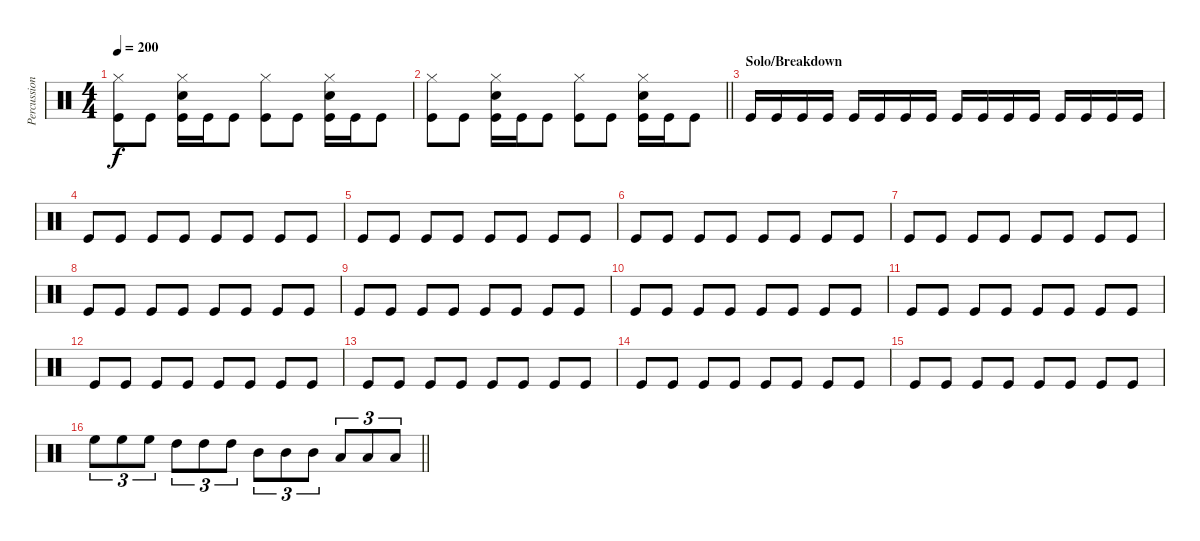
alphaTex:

\track ("Percussion" "Percussion") {instrument percussion}
\staff {score}
\articulation defaults
\ts (4 4)
\tempo 200
\clef neutral
\ks c
("Hi-Hat (closed)" "Kick (hit)").8{dy f} "Kick (hit)".8 ("Snare (hit) 2" "Hi-Hat (closed)" "Kick (hit)").16 "Kick (hit)".16 "Kick (hit)".8 ("Hi-Hat (closed)" "Kick (hit)").8 "Kick (hit)".8 ("Snare (hit) 2" "Hi-Hat (closed)" "Kick (hit)").16 "Kick (hit)".16 "Kick (hit)".8 |
\barLineRight lightlight
("Hi-Hat (closed)" "Kick (hit)").8 "Kick (hit)".8 ("Snare (hit) 2" "Hi-Hat (closed)" "Kick (hit)").16 "Kick (hit)".16 "Kick (hit)".8 ("Hi-Hat (closed)" "Kick (hit)").8 "Kick (hit)".8 ("Snare (hit) 2" "Hi-Hat (closed)" "Kick (hit)").16 "Kick (hit)".16 "Kick (hit)".8 |
\section ("" "Solo/Breakdown")
"Kick (hit)".16 "Kick (hit)".16 "Kick (hit)".16 "Kick (hit)".16 "Kick (hit)".16 "Kick (hit)".16 "Kick (hit)".16 "Kick (hit)".16 "Kick (hit)".16 "Kick (hit)".16 "Kick (hit)".16 "Kick (hit)".16 "Kick (hit)".16 "Kick (hit)".16 "Kick (hit)".16 "Kick (hit)".16 |
"Kick (hit)".8 "Kick (hit)".8 "Kick (hit)".8 "Kick (hit)".8 "Kick (hit)".8 "Kick (hit)".8 "Kick (hit)".8 "Kick (hit)".8 |
"Kick (hit)".8 "Kick (hit)".8 "Kick (hit)".8 "Kick (hit)".8 "Kick (hit)".8 "Kick (hit)".8 "Kick (hit)".8 "Kick (hit)".8 |
"Kick (hit)".8 "Kick (hit)".8 "Kick (hit)".8 "Kick (hit)".8 "Kick (hit)".8 "Kick (hit)".8 "Kick (hit)".8 "Kick (hit)".8 |
"Kick (hit)".8 "Kick (hit)".8 "Kick (hit)".8 "Kick (hit)".8 "Kick (hit)".8 "Kick (hit)".8 "Kick (hit)".8 "Kick (hit)".8 |
"Kick (hit)".8 "Kick (hit)".8 "Kick (hit)".8 "Kick (hit)".8 "Kick (hit)".8 "Kick (hit)".8 "Kick (hit)".8 "Kick (hit)".8 |
"Kick (hit)".8 "Kick (hit)".8 "Kick (hit)".8 "Kick (hit)".8 "Kick (hit)".8 "Kick (hit)".8 "Kick (hit)".8 "Kick (hit)".8 |
"Kick (hit)".8 "Kick (hit)".8 "Kick (hit)".8 "Kick (hit)".8 "Kick (hit)".8 "Kick (hit)".8 "Kick (hit)".8 "Kick (hit)".8 |
"Kick (hit)".8 "Kick (hit)".8 "Kick (hit)".8 "Kick (hit)".8 "Kick (hit)".8 "Kick (hit)".8 "Kick (hit)".8 "Kick (hit)".8 |
"Kick (hit)".8 "Kick (hit)".8 "Kick (hit)".8 "Kick (hit)".8 "Kick (hit)".8 "Kick (hit)".8 "Kick (hit)".8 "Kick (hit)".8 |
"Kick (hit)".8 "Kick (hit)".8 "Kick (hit)".8 "Kick (hit)".8 "Kick (hit)".8 "Kick (hit)".8 "Kick (hit)".8 "Kick (hit)".8 |
"Kick (hit)".8 "Kick (hit)".8 "Kick (hit)".8 "Kick (hit)".8 "Kick (hit)".8 "Kick (hit)".8 "Kick (hit)".8 "Kick (hit)".8 |
"Kick (hit)".8 "Kick (hit)".8 "Kick (hit)".8 "Kick (hit)".8 "Kick (hit)".8 "Kick (hit)".8 "Kick (hit)".8 "Kick (hit)".8 |
\barLineRight lightlight "High Floor Tom (hit)".8{tu (3 2)} "High Floor Tom (hit)".8{tu (3 2)} "High Floor Tom (hit)".8{tu (3 2)} "High Tom (hit)".8{tu (3 2)} "High Tom (hit)".8{tu (3 2)} "High Tom (hit)".8{tu (3 2)} "Mid Tom (hit)".8{tu (3 2)} "Mid Tom (hit)".8{tu (3 2)} "Mid Tom (hit)".8{tu (3 2)} "Low Tom (hit)".8{tu (3 2)} "Low Tom (hit)".8{tu (3 2)} "Low Tom (hit)".8{tu (3 2)}
